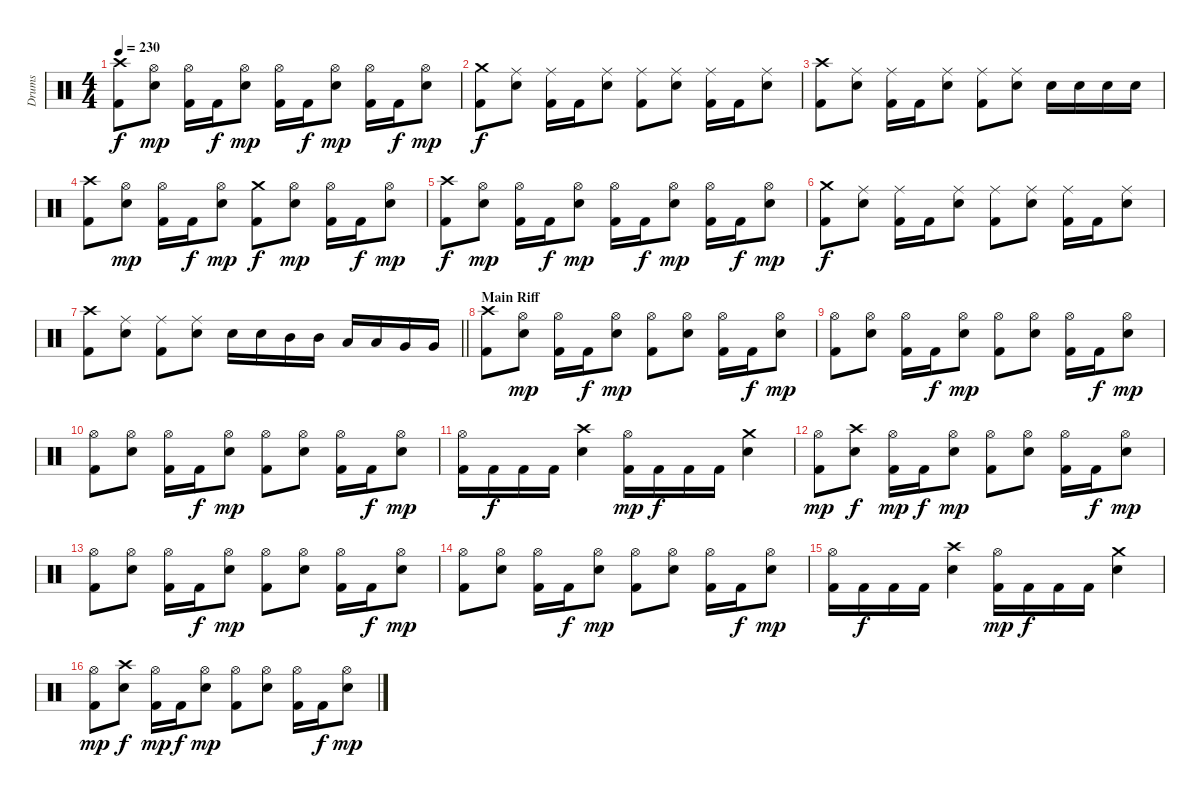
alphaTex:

\track ("Drums" "Drums") {instrument percussion}
\staff {score}
\articulation defaults
\ts (4 4)
\tempo 230
\clef neutral
\ks c
("Crash high (hit)" "Kick (hit) 2").8{dy f} ("Hi-Hat (open)" "Snare (hit) 2").8{dy mp} ("Hi-Hat (open)" "Kick (hit) 2").16 "Kick (hit) 2".16{dy f} ("Hi-Hat (open)" "Snare (hit) 2").8{dy mp} ("Hi-Hat (open)" "Kick (hit) 2").16 "Kick (hit) 2".16{dy f} ("Hi-Hat (open)" "Snare (hit) 2").8{dy mp} ("Hi-Hat (open)" "Kick (hit) 2").16 "Kick (hit) 2".16{dy f} ("Hi-Hat (open)" "Snare (hit) 2").8{dy mp} |
("Crash medium (hit)" "Kick (hit) 2").8{dy f} ("Ride (middle)" "Snare (hit) 2").8 ("Ride (middle)" "Kick (hit) 2").16 "Kick (hit) 2".16 ("Ride (middle)" "Snare (hit) 2").8 ("Ride (middle)" "Kick (hit) 2").8 ("Ride (middle)" "Snare (hit) 2").8 ("Ride (middle)" "Kick (hit) 2").16 "Kick (hit) 2".16 ("Ride (middle)" "Snare (hit) 2").8 |
("Crash high (hit)" "Kick (hit) 2").8 ("Ride (middle)" "Snare (hit) 2").8 ("Ride (middle)" "Kick (hit) 2").16 "Kick (hit) 2".16 ("Ride (middle)" "Snare (hit) 2").8 ("Ride (middle)" "Kick (hit) 2").8 ("Ride (middle)" "Snare (hit) 2").8 "Snare (hit) 2".16 "Snare (hit) 2".16 "Snare (hit) 2".16 "Snare (hit) 2".16 |
("Crash high (hit)" "Kick (hit) 2").8 ("Hi-Hat (open)" "Snare (hit) 2").8{dy mp} ("Hi-Hat (open)" "Kick (hit) 2").16 "Kick (hit) 2".16{dy f} ("Hi-Hat (open)" "Snare (hit) 2").8{dy mp} ("Crash medium (hit)" "Kick (hit) 2").8{dy f} ("Hi-Hat (open)" "Snare (hit) 2").8{dy mp} ("Hi-Hat (open)" "Kick (hit) 2").16 "Kick (hit) 2".16{dy f} ("Hi-Hat (open)" "Snare (hit) 2").8{dy mp} |
("Crash high (hit)" "Kick (hit) 2").8{dy f} ("Hi-Hat (open)" "Snare (hit) 2").8{dy mp} ("Hi-Hat (open)" "Kick (hit) 2").16 "Kick (hit) 2".16{dy f} ("Hi-Hat (open)" "Snare (hit) 2").8{dy mp} ("Hi-Hat (open)" "Kick (hit) 2").16 "Kick (hit) 2".16{dy f} ("Hi-Hat (open)" "Snare (hit) 2").8{dy mp} ("Hi-Hat (open)" "Kick (hit) 2").16 "Kick (hit) 2".16{dy f} ("Hi-Hat (open)" "Snare (hit) 2").8{dy mp} |
("Crash medium (hit)" "Kick (hit) 2").8{dy f} ("Ride (middle)" "Snare (hit) 2").8 ("Ride (middle)" "Kick (hit) 2").16 "Kick (hit) 2".16 ("Ride (middle)" "Snare (hit) 2").8 ("Ride (middle)" "Kick (hit) 2").8 ("Ride (middle)" "Snare (hit) 2").8 ("Ride (middle)" "Kick (hit) 2").16 "Kick (hit) 2".16 ("Ride (middle)" "Snare (hit) 2").8 |
\barLineRight lightlight
("Crash high (hit)" "Kick (hit) 2").8 ("Ride (middle)" "Snare (hit) 2").8 ("Ride (middle)" "Kick (hit) 2").8 ("Ride (middle)" "Snare (hit) 2").8 "Snare (hit) 2".16 "Snare (hit) 2".16 "Mid Tom (hit)".16 "Mid Tom (hit)".16 "Low Tom (hit)".16 "Low Tom (hit)".16 "Very Low Tom (hit)".16 "Very Low Tom (hit)".16 |
\section ("" "Main Riff")
("Crash high (hit)" "Kick (hit) 2").8 ("Hi-Hat (open)" "Snare (hit) 2").8{dy mp} ("Hi-Hat (open)" "Kick (hit) 2").16 "Kick (hit) 2".16{dy f} ("Hi-Hat (open)" "Snare (hit) 2").8{dy mp} ("Hi-Hat (open)" "Kick (hit) 2").8 ("Hi-Hat (open)" "Snare (hit) 2").8 ("Hi-Hat (open)" "Kick (hit) 2").16 "Kick (hit) 2".16{dy f} ("Hi-Hat (open)" "Snare (hit) 2").8{dy mp} |
("Hi-Hat (open)" "Kick (hit) 2").8 ("Hi-Hat (open)" "Snare (hit) 2").8 ("Hi-Hat (open)" "Kick (hit) 2").16 "Kick (hit) 2".16{dy f} ("Hi-Hat (open)" "Snare (hit) 2").8{dy mp} ("Hi-Hat (open)" "Kick (hit) 2").8 ("Hi-Hat (open)" "Snare (hit) 2").8 ("Hi-Hat (open)" "Kick (hit) 2").16 "Kick (hit) 2".16{dy f} ("Hi-Hat (open)" "Snare (hit) 2").8{dy mp} |
("Hi-Hat (open)" "Kick (hit) 2").8 ("Hi-Hat (open)" "Snare (hit) 2").8 ("Hi-Hat (open)" "Kick (hit) 2").16 "Kick (hit) 2".16{dy f} ("Hi-Hat (open)" "Snare (hit) 2").8{dy mp} ("Hi-Hat (open)" "Kick (hit) 2").8 ("Hi-Hat (open)" "Snare (hit) 2").8 ("Hi-Hat (open)" "Kick (hit) 2").16 "Kick (hit) 2".16{dy f} ("Hi-Hat (open)" "Snare (hit) 2").8{dy mp} |
("Hi-Hat (open)" "Kick (hit) 2").16 "Kick (hit) 2".16{dy f} "Kick (hit) 2".16 "Kick (hit) 2".16 ("Crash high (hit)" "Snare (hit) 2").4 ("Hi-Hat (open)" "Kick (hit) 2").16{dy mp} "Kick (hit) 2".16{dy f} "Kick (hit) 2".16 "Kick (hit) 2".16 ("Crash medium (hit)" "Snare (hit) 2").4 |
("Hi-Hat (open)" "Kick (hit) 2").8{dy mp} ("Crash high (hit)" "Snare (hit) 2").8{dy f} ("Hi-Hat (open)" "Kick (hit) 2").16{dy mp} "Kick (hit) 2".16{dy f} ("Hi-Hat (open)" "Snare (hit) 2").8{dy mp} ("Hi-Hat (open)" "Kick (hit) 2").8 ("Hi-Hat (open)" "Snare (hit) 2").8 ("Hi-Hat (open)" "Kick (hit) 2").16 "Kick (hit) 2".16{dy f} ("Hi-Hat (open)" "Snare (hit) 2").8{dy mp} |
("Hi-Hat (open)" "Kick (hit) 2").8 ("Hi-Hat (open)" "Snare (hit) 2").8 ("Hi-Hat (open)" "Kick (hit) 2").16 "Kick (hit) 2".16{dy f} ("Hi-Hat (open)" "Snare (hit) 2").8{dy mp} ("Hi-Hat (open)" "Kick (hit) 2").8 ("Hi-Hat (open)" "Snare (hit) 2").8 ("Hi-Hat (open)" "Kick (hit) 2").16 "Kick (hit) 2".16{dy f} ("Hi-Hat (open)" "Snare (hit) 2").8{dy mp} |
("Hi-Hat (open)" "Kick (hit) 2").8 ("Hi-Hat (open)" "Snare (hit) 2").8 ("Hi-Hat (open)" "Kick (hit) 2").16 "Kick (hit) 2".16{dy f} ("Hi-Hat (open)" "Snare (hit) 2").8{dy mp} ("Hi-Hat (open)" "Kick (hit) 2").8 ("Hi-Hat (open)" "Snare (hit) 2").8 ("Hi-Hat (open)" "Kick (hit) 2").16 "Kick (hit) 2".16{dy f} ("Hi-Hat (open)" "Snare (hit) 2").8{dy mp} |
("Hi-Hat (open)" "Kick (hit) 2").16 "Kick (hit) 2".16{dy f} "Kick (hit) 2".16 "Kick (hit) 2".16 ("Crash high (hit)" "Snare (hit) 2").4 ("Hi-Hat (open)" "Kick (hit) 2").16{dy mp} "Kick (hit) 2".16{dy f} "Kick (hit) 2".16 "Kick (hit) 2".16 ("Crash medium (hit)" "Snare (hit) 2").4 |
("Hi-Hat (open)" "Kick (hit) 2").8{dy mp} ("Crash high (hit)" "Snare (hit) 2").8{dy f} ("Hi-Hat (open)" "Kick (hit) 2").16{dy mp} "Kick (hit) 2".16{dy f} ("Hi-Hat (open)" "Snare (hit) 2").8{dy mp} ("Hi-Hat (open)" "Kick (hit) 2").8 ("Hi-Hat (open)" "Snare (hit) 2").8 ("Hi-Hat (open)" "Kick (hit) 2").16 "Kick (hit) 2".16{dy f} ("Hi-Hat (open)" "Snare (hit) 2").8{dy mp}
